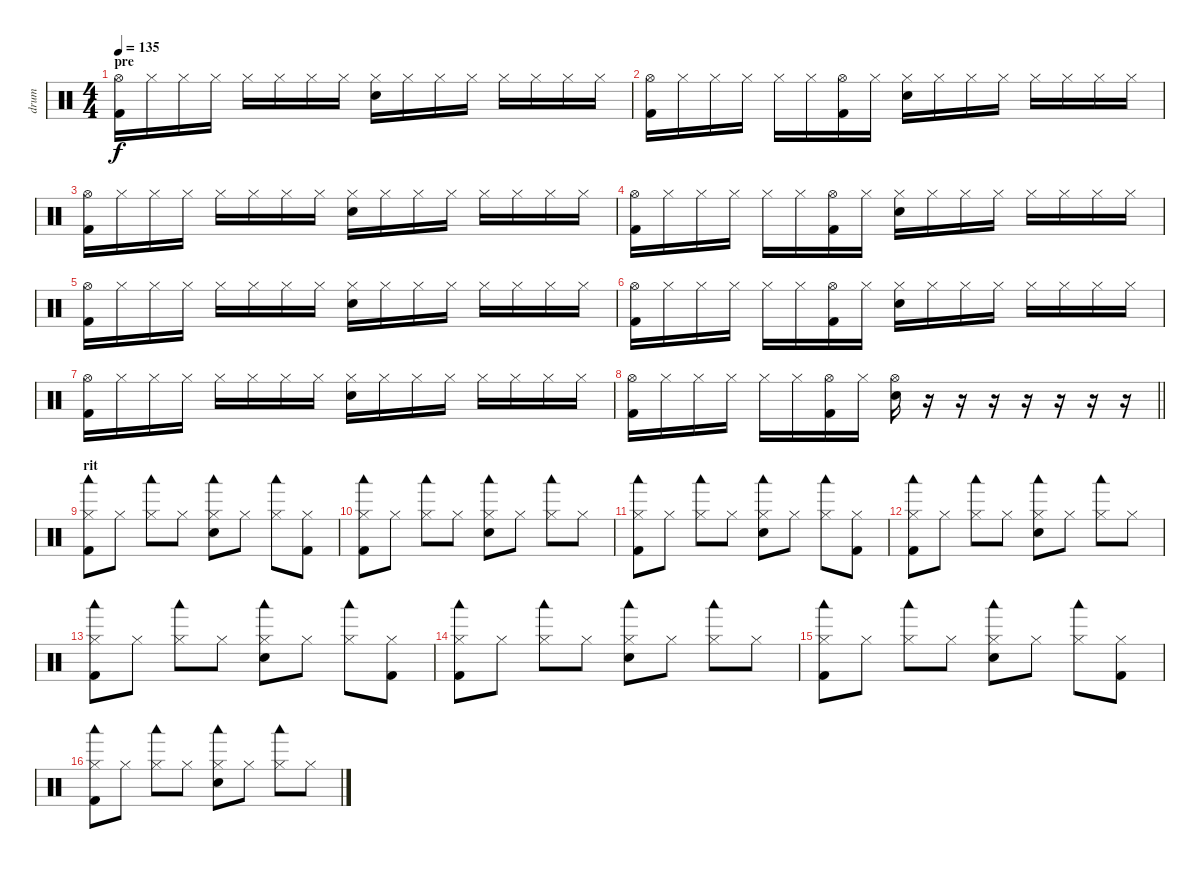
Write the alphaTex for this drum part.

\track ("drum" "drum") {instrument percussion}
\staff {score}
\articulation defaults
\ts (4 4)
\section ("" "pre")
\tempo 135
\clef neutral
\ks c
("Hi-Hat (open)" "Kick (hit) 2").16{dy f} "Hi-Hat (closed)".16 "Hi-Hat (closed)".16 "Hi-Hat (closed)".16 "Hi-Hat (closed)".16 "Hi-Hat (closed)".16 "Hi-Hat (closed)".16 "Hi-Hat (closed)".16 ("Hi-Hat (closed)" "Snare (hit) 2").16 "Hi-Hat (closed)".16 "Hi-Hat (closed)".16 "Hi-Hat (closed)".16 "Hi-Hat (closed)".16 "Hi-Hat (closed)".16 "Hi-Hat (closed)".16 "Hi-Hat (closed)".16 |
("Hi-Hat (open)" "Kick (hit) 2").16 "Hi-Hat (closed)".16 "Hi-Hat (closed)".16 "Hi-Hat (closed)".16 "Hi-Hat (closed)".16 "Hi-Hat (closed)".16 ("Hi-Hat (open)" "Kick (hit) 2").16 "Hi-Hat (closed)".16 ("Hi-Hat (closed)" "Snare (hit) 2").16 "Hi-Hat (closed)".16 "Hi-Hat (closed)".16 "Hi-Hat (closed)".16 "Hi-Hat (closed)".16 "Hi-Hat (closed)".16 "Hi-Hat (closed)".16 "Hi-Hat (closed)".16 |
("Hi-Hat (open)" "Kick (hit) 2").16 "Hi-Hat (closed)".16 "Hi-Hat (closed)".16 "Hi-Hat (closed)".16 "Hi-Hat (closed)".16 "Hi-Hat (closed)".16 "Hi-Hat (closed)".16 "Hi-Hat (closed)".16 ("Hi-Hat (closed)" "Snare (hit) 2").16 "Hi-Hat (closed)".16 "Hi-Hat (closed)".16 "Hi-Hat (closed)".16 "Hi-Hat (closed)".16 "Hi-Hat (closed)".16 "Hi-Hat (closed)".16 "Hi-Hat (closed)".16 |
("Hi-Hat (open)" "Kick (hit) 2").16 "Hi-Hat (closed)".16 "Hi-Hat (closed)".16 "Hi-Hat (closed)".16 "Hi-Hat (closed)".16 "Hi-Hat (closed)".16 ("Hi-Hat (open)" "Kick (hit) 2").16 "Hi-Hat (closed)".16 ("Hi-Hat (closed)" "Snare (hit) 2").16 "Hi-Hat (closed)".16 "Hi-Hat (closed)".16 "Hi-Hat (closed)".16 "Hi-Hat (closed)".16 "Hi-Hat (closed)".16 "Hi-Hat (closed)".16 "Hi-Hat (closed)".16 |
("Hi-Hat (open)" "Kick (hit) 2").16 "Hi-Hat (closed)".16 "Hi-Hat (closed)".16 "Hi-Hat (closed)".16 "Hi-Hat (closed)".16 "Hi-Hat (closed)".16 "Hi-Hat (closed)".16 "Hi-Hat (closed)".16 ("Hi-Hat (closed)" "Snare (hit) 2").16 "Hi-Hat (closed)".16 "Hi-Hat (closed)".16 "Hi-Hat (closed)".16 "Hi-Hat (closed)".16 "Hi-Hat (closed)".16 "Hi-Hat (closed)".16 "Hi-Hat (closed)".16 |
("Hi-Hat (open)" "Kick (hit) 2").16 "Hi-Hat (closed)".16 "Hi-Hat (closed)".16 "Hi-Hat (closed)".16 "Hi-Hat (closed)".16 "Hi-Hat (closed)".16 ("Hi-Hat (open)" "Kick (hit) 2").16 "Hi-Hat (closed)".16 ("Hi-Hat (closed)" "Snare (hit) 2").16 "Hi-Hat (closed)".16 "Hi-Hat (closed)".16 "Hi-Hat (closed)".16 "Hi-Hat (closed)".16 "Hi-Hat (closed)".16 "Hi-Hat (closed)".16 "Hi-Hat (closed)".16 |
("Hi-Hat (open)" "Kick (hit) 2").16 "Hi-Hat (closed)".16 "Hi-Hat (closed)".16 "Hi-Hat (closed)".16 "Hi-Hat (closed)".16 "Hi-Hat (closed)".16 "Hi-Hat (closed)".16 "Hi-Hat (closed)".16 ("Hi-Hat (closed)" "Snare (hit) 2").16 "Hi-Hat (closed)".16 "Hi-Hat (closed)".16 "Hi-Hat (closed)".16 "Hi-Hat (closed)".16 "Hi-Hat (closed)".16 "Hi-Hat (closed)".16 "Hi-Hat (closed)".16 |
\barLineRight lightlight
("Hi-Hat (open)" "Kick (hit) 2").16 "Hi-Hat (closed)".16 "Hi-Hat (closed)".16 "Hi-Hat (closed)".16 "Hi-Hat (closed)".16 "Hi-Hat (closed)".16 ("Hi-Hat (open)" "Kick (hit) 2").16 "Hi-Hat (closed)".16 ("Hi-Hat (open)" "Snare (hit) 2").16 r.16 r.16 r.16 r.16 r.16 r.16 r.16 |
\section ("" "rit")
("Hi-Hat (closed)" "Woodblock low (hit)" "Kick (hit) 2").8 "Hi-Hat (closed)".8 ("Hi-Hat (closed)" "Woodblock low (hit)").8 "Hi-Hat (closed)".8 ("Hi-Hat (closed)" "Woodblock low (hit)" "Snare (hit) 2").8 "Hi-Hat (closed)".8 ("Hi-Hat (closed)" "Woodblock low (hit)").8 ("Hi-Hat (closed)" "Kick (hit) 2").8 |
("Hi-Hat (closed)" "Woodblock low (hit)" "Kick (hit) 2").8 "Hi-Hat (closed)".8 ("Hi-Hat (closed)" "Woodblock low (hit)").8 "Hi-Hat (closed)".8 ("Hi-Hat (closed)" "Woodblock low (hit)" "Snare (hit) 2").8 "Hi-Hat (closed)".8 ("Hi-Hat (closed)" "Woodblock low (hit)").8 "Hi-Hat (closed)".8 |
("Hi-Hat (closed)" "Woodblock low (hit)" "Kick (hit) 2").8 "Hi-Hat (closed)".8 ("Hi-Hat (closed)" "Woodblock low (hit)").8 "Hi-Hat (closed)".8 ("Hi-Hat (closed)" "Woodblock low (hit)" "Snare (hit) 2").8 "Hi-Hat (closed)".8 ("Hi-Hat (closed)" "Woodblock low (hit)").8 ("Hi-Hat (closed)" "Kick (hit) 2").8 |
("Hi-Hat (closed)" "Woodblock low (hit)" "Kick (hit) 2").8 "Hi-Hat (closed)".8 ("Hi-Hat (closed)" "Woodblock low (hit)").8 "Hi-Hat (closed)".8 ("Hi-Hat (closed)" "Woodblock low (hit)" "Snare (hit) 2").8 "Hi-Hat (closed)".8 ("Hi-Hat (closed)" "Woodblock low (hit)").8 "Hi-Hat (closed)".8 |
("Hi-Hat (closed)" "Woodblock low (hit)" "Kick (hit) 2").8 "Hi-Hat (closed)".8 ("Hi-Hat (closed)" "Woodblock low (hit)").8 "Hi-Hat (closed)".8 ("Hi-Hat (closed)" "Woodblock low (hit)" "Snare (hit) 2").8 "Hi-Hat (closed)".8 ("Hi-Hat (closed)" "Woodblock low (hit)").8 ("Hi-Hat (closed)" "Kick (hit) 2").8 |
("Hi-Hat (closed)" "Woodblock low (hit)" "Kick (hit) 2").8 "Hi-Hat (closed)".8 ("Hi-Hat (closed)" "Woodblock low (hit)").8 "Hi-Hat (closed)".8 ("Hi-Hat (closed)" "Woodblock low (hit)" "Snare (hit) 2").8 "Hi-Hat (closed)".8 ("Hi-Hat (closed)" "Woodblock low (hit)").8 "Hi-Hat (closed)".8 |
("Hi-Hat (closed)" "Woodblock low (hit)" "Kick (hit) 2").8 "Hi-Hat (closed)".8 ("Hi-Hat (closed)" "Woodblock low (hit)").8 "Hi-Hat (closed)".8 ("Hi-Hat (closed)" "Woodblock low (hit)" "Snare (hit) 2").8 "Hi-Hat (closed)".8 ("Hi-Hat (closed)" "Woodblock low (hit)").8 ("Hi-Hat (closed)" "Kick (hit) 2").8 |
("Hi-Hat (closed)" "Woodblock low (hit)" "Kick (hit) 2").8 "Hi-Hat (closed)".8 ("Hi-Hat (closed)" "Woodblock low (hit)").8 "Hi-Hat (closed)".8 ("Hi-Hat (closed)" "Woodblock low (hit)" "Snare (hit) 2").8 "Hi-Hat (closed)".8 ("Hi-Hat (closed)" "Woodblock low (hit)").8 "Hi-Hat (closed)".8
